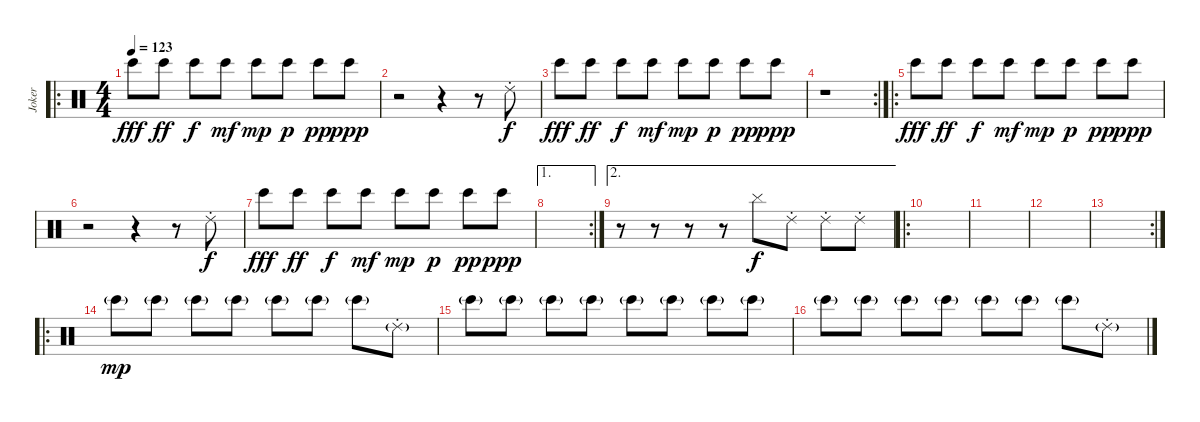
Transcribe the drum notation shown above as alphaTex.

\track ("Joker" "Joker") {instrument percussion}
\staff {score}
\articulation defaults
\ro
\ts (4 4)
\tempo 123
\clef neutral
\ks c "Bongo High (hit)".8{dy fff} "Bongo High (hit)".8{dy ff} "Bongo High (hit)".8{dy f} "Bongo High (hit)".8{dy mf} "Bongo High (hit)".8{dy mp} "Bongo High (hit)".8{dy p} "Bongo High (hit)".8{dy pp} "Bongo High (hit)".8{dy ppp}
|
r.2 r.4 r.8 "Ride (choke) 2".8{dy f} |
"Bongo High (hit)".8{dy fff} "Bongo High (hit)".8{dy ff} "Bongo High (hit)".8{dy f} "Bongo High (hit)".8{dy mf} "Bongo High (hit)".8{dy mp} "Bongo High (hit)".8{dy p} "Bongo High (hit)".8{dy pp} "Bongo High (hit)".8{dy ppp} |
\rc 2
r.1 |
\ro "Bongo High (hit)".8{dy fff} "Bongo High (hit)".8{dy ff} "Bongo High (hit)".8{dy f} "Bongo High (hit)".8{dy mf} "Bongo High (hit)".8{dy mp} "Bongo High (hit)".8{dy p} "Bongo High (hit)".8{dy pp} "Bongo High (hit)".8{dy ppp}
|
r.2 r.4 r.8 "Ride (choke) 2".8{dy f} |
"Bongo High (hit)".8{dy fff} "Bongo High (hit)".8{dy ff} "Bongo High (hit)".8{dy f} "Bongo High (hit)".8{dy mf} "Bongo High (hit)".8{dy mp} "Bongo High (hit)".8{dy p} "Bongo High (hit)".8{dy pp} "Bongo High (hit)".8{dy ppp} |
\ae 1
\rc 2
|
\ae 2
r.8 r.8 r.8 r.8 "Cymbal (hit)".8{dy f} "Ride (choke) 2".8 "Ride (choke) 2".8 "Ride (choke) 2".8 |
\ro
|
|
|
\rc 2
|
\ro "Bongo High (hit)"{g}.8{dy mp} "Bongo High (hit)"{g}.8 "Bongo High (hit)"{g}.8 "Bongo High (hit)"{g}.8 "Bongo High (hit)"{g}.8 "Bongo High (hit)"{g}.8 "Bongo High (hit)"{g}.8 "Ride (choke) 2"{g}.8
|
"Bongo High (hit)"{g}.8 "Bongo High (hit)"{g}.8 "Bongo High (hit)"{g}.8 "Bongo High (hit)"{g}.8 "Bongo High (hit)"{g}.8 "Bongo High (hit)"{g}.8 "Bongo High (hit)"{g}.8 "Bongo High (hit)"{g}.8 |
"Bongo High (hit)"{g}.8 "Bongo High (hit)"{g}.8 "Bongo High (hit)"{g}.8 "Bongo High (hit)"{g}.8 "Bongo High (hit)"{g}.8 "Bongo High (hit)"{g}.8 "Bongo High (hit)"{g}.8 "Ride (choke) 2"{g}.8
